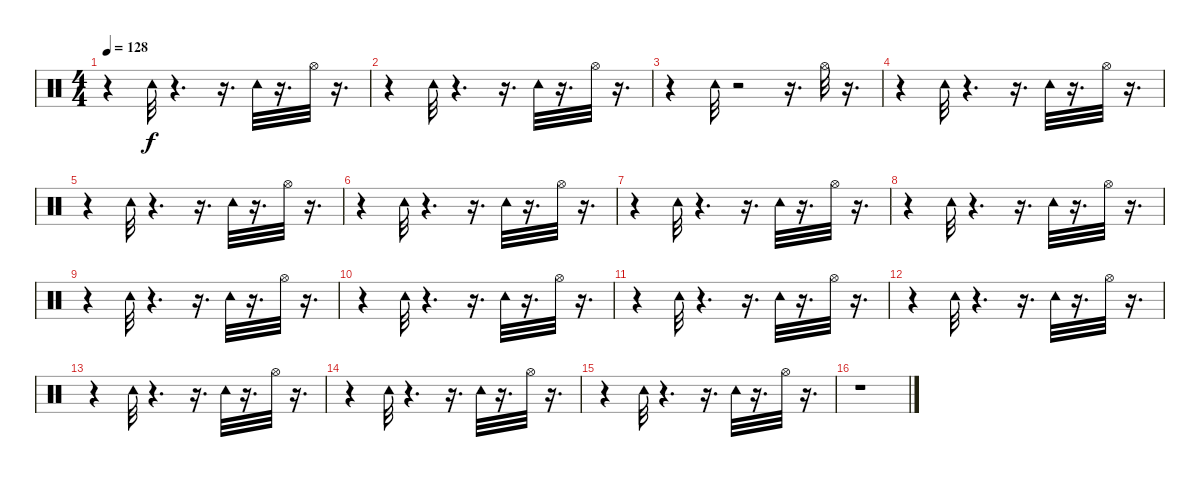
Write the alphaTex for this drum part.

\track "" {instrument percussion}
\staff {score}
\articulation defaults
\ts (4 4)
\tempo 128
\clef neutral
\ks c
r.4{dy f} "Tambourine (hit)".32 r.4{d} r.16{d} "Tambourine (hit)".32 r.16{d} "Hi-Hat (open)".32 r.16{d} |
r.4 "Tambourine (hit)".32 r.4{d} r.16{d} "Tambourine (hit)".32 r.16{d} "Hi-Hat (open)".32 r.16{d} |
r.4 "Tambourine (hit)".32 r.2 r.16{d} "Hi-Hat (open)".32 r.16{d} |
r.4 "Tambourine (hit)".32 r.4{d} r.16{d} "Tambourine (hit)".32 r.16{d} "Hi-Hat (open)".32 r.16{d} |
r.4 "Tambourine (hit)".32 r.4{d} r.16{d} "Tambourine (hit)".32 r.16{d} "Hi-Hat (open)".32 r.16{d} |
r.4 "Tambourine (hit)".32 r.4{d} r.16{d} "Tambourine (hit)".32 r.16{d} "Hi-Hat (open)".32 r.16{d} |
r.4 "Tambourine (hit)".32 r.4{d} r.16{d} "Tambourine (hit)".32 r.16{d} "Hi-Hat (open)".32 r.16{d} |
r.4 "Tambourine (hit)".32 r.4{d} r.16{d} "Tambourine (hit)".32 r.16{d} "Hi-Hat (open)".32 r.16{d} |
r.4 "Tambourine (hit)".32 r.4{d} r.16{d} "Tambourine (hit)".32 r.16{d} "Hi-Hat (open)".32 r.16{d} |
r.4 "Tambourine (hit)".32 r.4{d} r.16{d} "Tambourine (hit)".32 r.16{d} "Hi-Hat (open)".32 r.16{d} |
r.4 "Tambourine (hit)".32 r.4{d} r.16{d} "Tambourine (hit)".32 r.16{d} "Hi-Hat (open)".32 r.16{d} |
r.4 "Tambourine (hit)".32 r.4{d} r.16{d} "Tambourine (hit)".32 r.16{d} "Hi-Hat (open)".32 r.16{d} |
r.4 "Tambourine (hit)".32 r.4{d} r.16{d} "Tambourine (hit)".32 r.16{d} "Hi-Hat (open)".32 r.16{d} |
r.4 "Tambourine (hit)".32 r.4{d} r.16{d} "Tambourine (hit)".32 r.16{d} "Hi-Hat (open)".32 r.16{d} |
r.4 "Tambourine (hit)".32 r.4{d} r.16{d} "Tambourine (hit)".32 r.16{d} "Hi-Hat (open)".32 r.16{d} |
r.1
